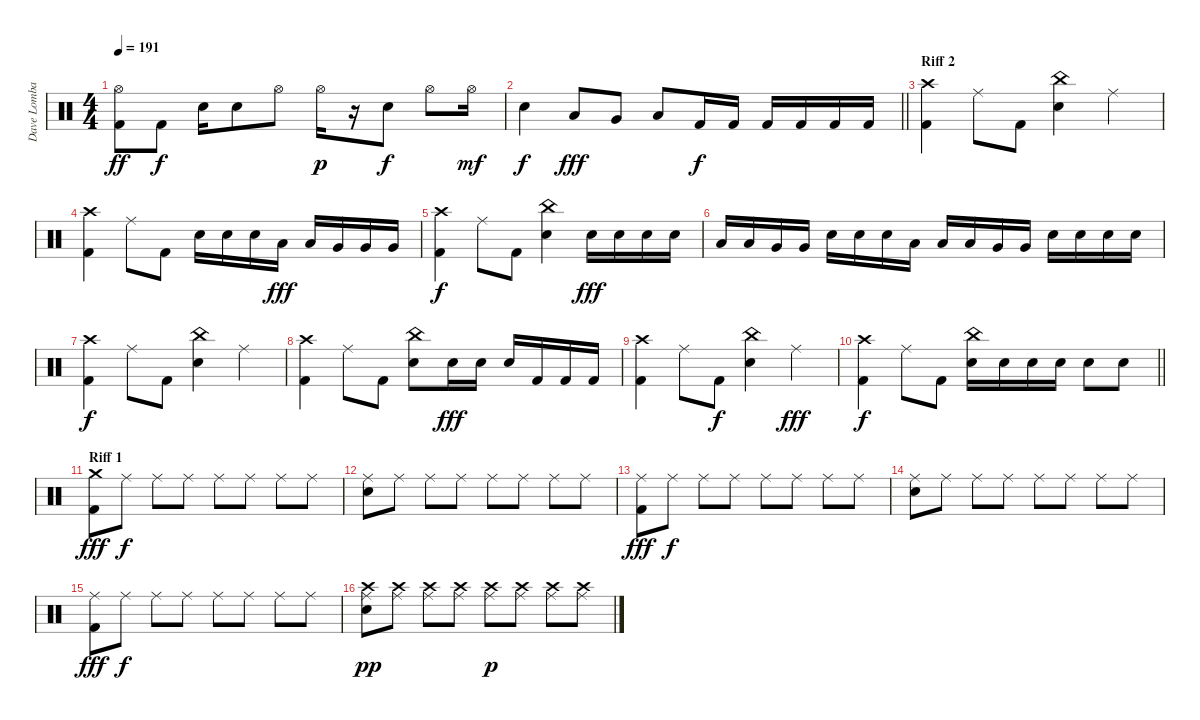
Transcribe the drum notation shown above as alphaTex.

\track ("Dave Lombardo" "Dave Lomba") {instrument percussion}
\staff {score}
\articulation defaults
\ts (4 4)
\tempo 191
\clef neutral
\ks c
("Hi-Hat (open)" "Kick (hit) 2").8{dy ff} "Kick (hit) 2".8{dy f} "Snare (hit) 2".16 "Snare (hit) 2".8 "Hi-Hat (open)".8 "Hi-Hat (open)".16{dy p} r.16 "Snare (hit) 2".8{dy f} "Hi-Hat (open)".8 "Hi-Hat (open)".16{dy mf} |
\barLineRight lightlight "Snare (hit) 2".4{dy f} "Low Tom (hit)".8{dy fff} "Very Low Tom (hit)".8 "Low Floor Tom (hit)".8 "Kick (hit) 2".16{dy f} "Kick (hit) 2".16 "Kick (hit) 2".16 "Kick (hit) 2".16 "Kick (hit) 2".16 "Kick (hit) 2".16
|
\section ("" "Riff 2")
("Crash high (hit)" "Kick (hit) 2").4 "Ride (middle)".8 "Kick (hit) 2".8 ("China (hit)" "Snare (hit) 2").4 "Ride (middle)".4 |
("Crash high (hit)" "Kick (hit) 2").4 "Ride (middle)".8 "Kick (hit) 2".8 "Snare (hit) 2".16 "Snare (hit) 2".16 "Snare (hit) 2".16 "Low Tom (hit)".16{dy fff} "Low Tom (hit)".16 "Very Low Tom (hit)".16 "Very Low Tom (hit)".16 "Very Low Tom (hit)".16 |
("Crash high (hit)" "Kick (hit) 2").4{dy f} "Ride (middle)".8 "Kick (hit) 2".8 ("China (hit)" "Snare (hit) 2").4 "Snare (hit) 2".16{dy fff} "Snare (hit) 2".16 "Snare (hit) 2".16 "Snare (hit) 2".16 |
"Low Tom (hit)".16 "Low Tom (hit)".16 "Very Low Tom (hit)".16 "Very Low Tom (hit)".16 "Snare (hit) 2".16 "Snare (hit) 2".16 "Snare (hit) 2".16 "Low Tom (hit)".16 "Low Tom (hit)".16 "Low Tom (hit)".16 "Very Low Tom (hit)".16 "Very Low Tom (hit)".16 "Snare (hit) 2".16 "Snare (hit) 2".16 "Snare (hit) 2".16 "Snare (hit) 2".16 |
("Crash high (hit)" "Kick (hit) 2").4{dy f} "Ride (middle)".8 "Kick (hit) 2".8 ("China (hit)" "Snare (hit) 2").4 "Ride (middle)".4 |
("Crash high (hit)" "Kick (hit) 2").4 "Ride (middle)".8 "Kick (hit) 2".8 ("China (hit)" "Snare (hit) 2").8 "Snare (hit) 2".16{dy fff} "Snare (hit) 2".16 "Snare (hit) 2".16 "Kick (hit) 2".16 "Kick (hit) 2".16 "Kick (hit) 2".16 |
("Crash high (hit)" "Kick (hit) 2").4 "Ride (middle)".8 "Kick (hit) 2".8{dy f} ("China (hit)" "Snare (hit) 2").4 "Ride (middle)".4{dy fff} |
\barLineRight lightlight
("Crash high (hit)" "Kick (hit) 2").4{dy f} "Ride (middle)".8 "Kick (hit) 2".8 ("China (hit)" "Snare (hit) 2").16 "Snare (hit) 2".16 "Snare (hit) 2".16 "Snare (hit) 2".16 "Snare (hit) 2".8 "Snare (hit) 2".8 |
\section ("" "Riff 1")
("Crash medium (hit)" "Kick (hit) 2").8{dy fff} "Ride (middle)".8{dy f} "Ride (middle)".8 "Ride (middle)".8 "Ride (middle)".8 "Ride (middle)".8 "Ride (middle)".8 "Ride (middle)".8 |
("Ride (middle)" "Snare (hit) 2").8 "Ride (middle)".8 "Ride (middle)".8 "Ride (middle)".8 "Ride (middle)".8 "Ride (middle)".8 "Ride (middle)".8 "Ride (middle)".8 |
("Ride (middle)" "Kick (hit) 2").8{dy fff} "Ride (middle)".8{dy f} "Ride (middle)".8 "Ride (middle)".8 "Ride (middle)".8 "Ride (middle)".8 "Ride (middle)".8 "Ride (middle)".8 |
("Ride (middle)" "Snare (hit) 2").8 "Ride (middle)".8 "Ride (middle)".8 "Ride (middle)".8 "Ride (middle)".8 "Ride (middle)".8 "Ride (middle)".8 "Ride (middle)".8 |
("Ride (middle)" "Kick (hit) 2").8{dy fff} "Ride (middle)".8{dy f} "Ride (middle)".8 "Ride (middle)".8 "Ride (middle)".8 "Ride (middle)".8 "Ride (middle)".8 "Ride (middle)".8 |
("Crash high (hit)" "Ride (middle)" "Snare (hit) 2").8{dy pp} ("Crash high (hit)" "Ride (middle)").8 ("Crash high (hit)" "Ride (middle)").8 ("Crash high (hit)" "Ride (middle)").8 ("Crash high (hit)" "Ride (middle)").8{dy p} ("Crash high (hit)" "Ride (middle)").8 ("Crash high (hit)" "Ride (middle)").8 ("Crash high (hit)" "Ride (middle)").8
